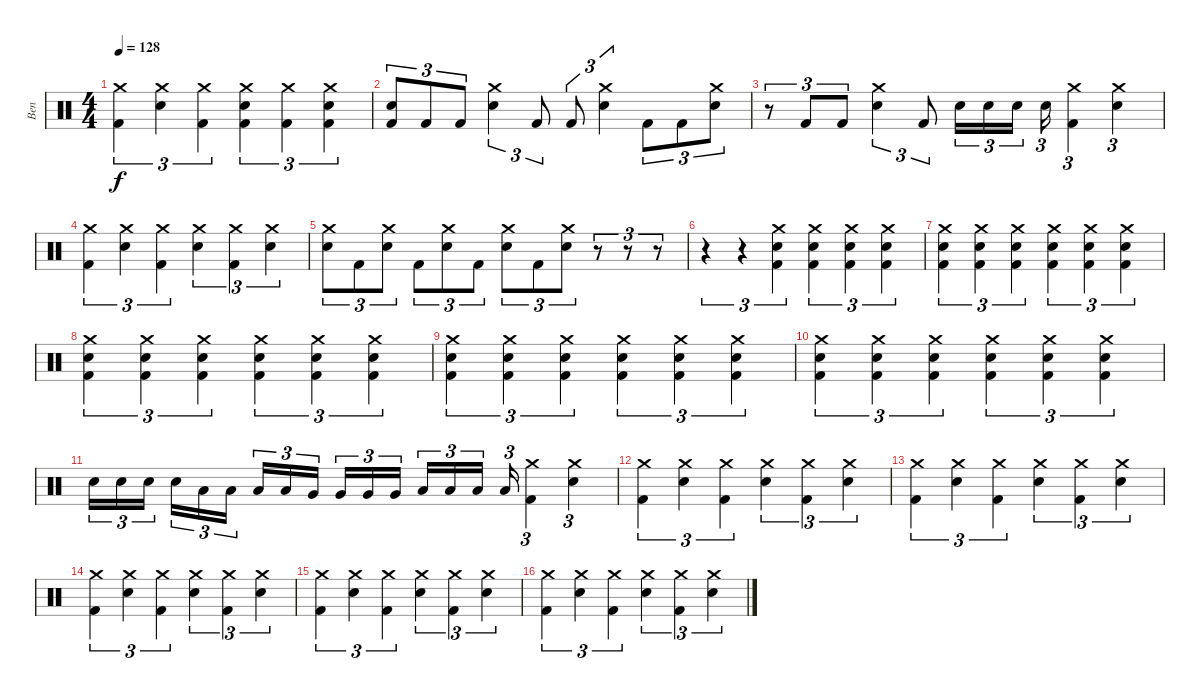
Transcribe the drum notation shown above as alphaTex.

\track ("Ben" "Ben") {instrument percussion}
\staff {score}
\articulation defaults
\ts (4 4)
\tempo 128
\clef neutral
\ks c
("Crash medium (hit)" "Kick (hit) 2").4{tu (3 2) dy f} ("Crash medium (hit)" "Electric Snare (hit)").4{tu (3 2)} ("Crash medium (hit)" "Kick (hit) 2").4{tu (3 2)} ("Crash medium (hit)" "Electric Snare (hit)" "Kick (hit) 2").4{tu (3 2)} ("Crash medium (hit)" "Kick (hit) 2").4{tu (3 2)} ("Crash medium (hit)" "Electric Snare (hit)" "Kick (hit) 2").4{tu (3 2)} |
("Electric Snare (hit)" "Kick (hit) 2").8{tu (3 2)} "Kick (hit) 2".8{tu (3 2)} "Kick (hit) 2".8{tu (3 2)} ("Crash medium (hit)" "Electric Snare (hit)").4{tu (3 2)} "Kick (hit) 2".8{tu (3 2)} "Kick (hit) 2".8{tu (3 2)} ("Crash medium (hit)" "Electric Snare (hit)").4{tu (3 2)} "Kick (hit) 2".8{tu (3 2)} "Kick (hit) 2".8{tu (3 2)} ("Crash medium (hit)" "Electric Snare (hit)").8{tu (3 2)} |
r.8{tu (3 2)} "Kick (hit) 2".8{tu (3 2)} "Kick (hit) 2".8{tu (3 2)} ("Crash medium (hit)" "Electric Snare (hit)").4{tu (3 2)} "Kick (hit) 2".8{tu (3 2)} "Electric Snare (hit)".16{tu (3 2)} "Electric Snare (hit)".16{tu (3 2)} "Electric Snare (hit)".16{tu (3 2)} "Electric Snare (hit)".16{tu (3 2)} ("Crash medium (hit)" "Kick (hit) 2").4{tu (3 2)} ("Crash medium (hit)" "Electric Snare (hit)").4{tu (3 2)} |
("Crash medium (hit)" "Kick (hit) 2").4{tu (3 2)} ("Crash medium (hit)" "Electric Snare (hit)").4{tu (3 2)} ("Crash medium (hit)" "Kick (hit) 2").4{tu (3 2)} ("Crash medium (hit)" "Electric Snare (hit)").4{tu (3 2)} ("Crash medium (hit)" "Kick (hit) 2").4{tu (3 2)} ("Crash medium (hit)" "Electric Snare (hit)").4{tu (3 2)} |
("Crash medium (hit)" "Electric Snare (hit)").8{tu (3 2)} "Kick (hit) 2".8{tu (3 2)} ("Crash medium (hit)" "Electric Snare (hit)").8{tu (3 2)} "Kick (hit) 2".8{tu (3 2)} ("Crash medium (hit)" "Electric Snare (hit)").8{tu (3 2)} "Kick (hit) 2".8{tu (3 2)} ("Crash medium (hit)" "Electric Snare (hit)").8{tu (3 2)} "Kick (hit) 2".8{tu (3 2)} ("Crash medium (hit)" "Electric Snare (hit)").8{tu (3 2)} r.8{tu (3 2)} r.8{tu (3 2)} r.8{tu (3 2)} |
r.4{tu (3 2)} r.4{tu (3 2)} ("Crash medium (hit)" "Electric Snare (hit)" "Kick (hit) 2").4{tu (3 2)} ("Crash medium (hit)" "Electric Snare (hit)" "Kick (hit) 2").4{tu (3 2)} ("Crash medium (hit)" "Electric Snare (hit)" "Kick (hit) 2").4{tu (3 2)} ("Crash medium (hit)" "Electric Snare (hit)" "Kick (hit) 2").4{tu (3 2)} |
("Crash medium (hit)" "Electric Snare (hit)" "Kick (hit) 2").4{tu (3 2)} ("Crash medium (hit)" "Electric Snare (hit)" "Kick (hit) 2").4{tu (3 2)} ("Crash medium (hit)" "Electric Snare (hit)" "Kick (hit) 2").4{tu (3 2)} ("Crash medium (hit)" "Electric Snare (hit)" "Kick (hit) 2").4{tu (3 2)} ("Crash medium (hit)" "Electric Snare (hit)" "Kick (hit) 2").4{tu (3 2)} ("Crash medium (hit)" "Electric Snare (hit)" "Kick (hit) 2").4{tu (3 2)} |
("Crash medium (hit)" "Electric Snare (hit)" "Kick (hit) 2").4{tu (3 2)} ("Crash medium (hit)" "Electric Snare (hit)" "Kick (hit) 2").4{tu (3 2)} ("Crash medium (hit)" "Electric Snare (hit)" "Kick (hit) 2").4{tu (3 2)} ("Crash medium (hit)" "Electric Snare (hit)" "Kick (hit) 2").4{tu (3 2)} ("Crash medium (hit)" "Electric Snare (hit)" "Kick (hit) 2").4{tu (3 2)} ("Crash medium (hit)" "Electric Snare (hit)" "Kick (hit) 2").4{tu (3 2)} |
("Crash medium (hit)" "Electric Snare (hit)" "Kick (hit) 2").4{tu (3 2)} ("Crash medium (hit)" "Electric Snare (hit)" "Kick (hit) 2").4{tu (3 2)} ("Crash medium (hit)" "Electric Snare (hit)" "Kick (hit) 2").4{tu (3 2)} ("Crash medium (hit)" "Electric Snare (hit)" "Kick (hit) 2").4{tu (3 2)} ("Crash medium (hit)" "Electric Snare (hit)" "Kick (hit) 2").4{tu (3 2)} ("Crash medium (hit)" "Electric Snare (hit)" "Kick (hit) 2").4{tu (3 2)} |
("Crash medium (hit)" "Electric Snare (hit)" "Kick (hit) 2").4{tu (3 2)} ("Crash medium (hit)" "Electric Snare (hit)" "Kick (hit) 2").4{tu (3 2)} ("Crash medium (hit)" "Electric Snare (hit)" "Kick (hit) 2").4{tu (3 2)} ("Crash medium (hit)" "Electric Snare (hit)" "Kick (hit) 2").4{tu (3 2)} ("Crash medium (hit)" "Electric Snare (hit)" "Kick (hit) 2").4{tu (3 2)} ("Crash medium (hit)" "Electric Snare (hit)" "Kick (hit) 2").4{tu (3 2)} |
"Electric Snare (hit)".16{tu (3 2)} "Electric Snare (hit)".16{tu (3 2)} "Electric Snare (hit)".16{tu (3 2)} "Electric Snare (hit)".16{tu (3 2)} "Low Tom (hit)".16{tu (3 2)} "Low Tom (hit)".16{tu (3 2)} "Low Tom (hit)".16{tu (3 2)} "Low Tom (hit)".16{tu (3 2)} "Very Low Tom (hit)".16{tu (3 2)} "Very Low Tom (hit)".16{tu (3 2)} "Very Low Tom (hit)".16{tu (3 2)} "Very Low Tom (hit)".16{tu (3 2)} "Low Floor Tom (hit)".16{tu (3 2)} "Low Floor Tom (hit)".16{tu (3 2)} "Low Floor Tom (hit)".16{tu (3 2)} "Low Floor Tom (hit)".16{tu (3 2)} ("Crash medium (hit)" "Kick (hit) 2").4{tu (3 2)} ("Crash medium (hit)" "Electric Snare (hit)").4{tu (3 2)} |
("Crash medium (hit)" "Kick (hit) 2").4{tu (3 2)} ("Crash medium (hit)" "Electric Snare (hit)").4{tu (3 2)} ("Crash medium (hit)" "Kick (hit) 2").4{tu (3 2)} ("Crash medium (hit)" "Electric Snare (hit)").4{tu (3 2)} ("Crash medium (hit)" "Kick (hit) 2").4{tu (3 2)} ("Crash medium (hit)" "Electric Snare (hit)").4{tu (3 2)} |
("Crash medium (hit)" "Kick (hit) 2").4{tu (3 2)} ("Crash medium (hit)" "Electric Snare (hit)").4{tu (3 2)} ("Crash medium (hit)" "Kick (hit) 2").4{tu (3 2)} ("Crash medium (hit)" "Electric Snare (hit)").4{tu (3 2)} ("Crash medium (hit)" "Kick (hit) 2").4{tu (3 2)} ("Crash medium (hit)" "Electric Snare (hit)").4{tu (3 2)} |
("Crash medium (hit)" "Kick (hit) 2").4{tu (3 2)} ("Crash medium (hit)" "Electric Snare (hit)").4{tu (3 2)} ("Crash medium (hit)" "Kick (hit) 2").4{tu (3 2)} ("Crash medium (hit)" "Electric Snare (hit)").4{tu (3 2)} ("Crash medium (hit)" "Kick (hit) 2").4{tu (3 2)} ("Crash medium (hit)" "Electric Snare (hit)").4{tu (3 2)} |
("Crash medium (hit)" "Kick (hit) 2").4{tu (3 2)} ("Crash medium (hit)" "Electric Snare (hit)").4{tu (3 2)} ("Crash medium (hit)" "Kick (hit) 2").4{tu (3 2)} ("Crash medium (hit)" "Electric Snare (hit)").4{tu (3 2)} ("Crash medium (hit)" "Kick (hit) 2").4{tu (3 2)} ("Crash medium (hit)" "Electric Snare (hit)").4{tu (3 2)} |
("Crash medium (hit)" "Kick (hit) 2").4{tu (3 2)} ("Crash medium (hit)" "Electric Snare (hit)").4{tu (3 2)} ("Crash medium (hit)" "Kick (hit) 2").4{tu (3 2)} ("Crash medium (hit)" "Electric Snare (hit)").4{tu (3 2)} ("Crash medium (hit)" "Kick (hit) 2").4{tu (3 2)} ("Crash medium (hit)" "Electric Snare (hit)").4{tu (3 2)}
